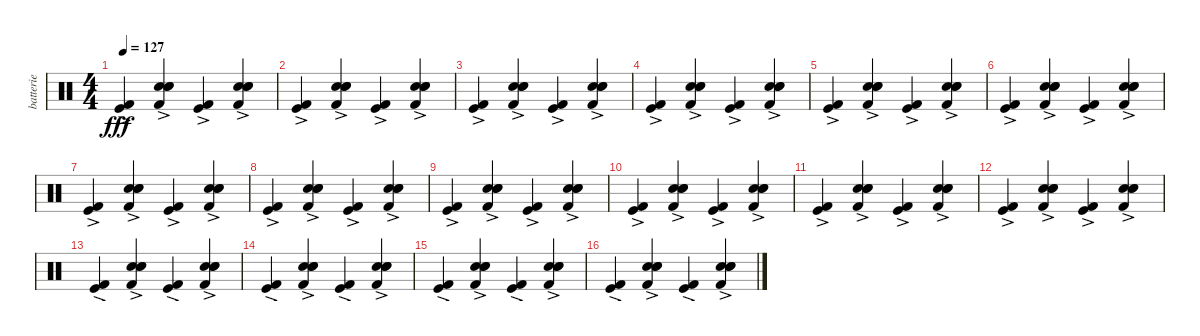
\track ("batterie" "batterie") {instrument percussion}
\staff {score}
\articulation defaults
\ts (4 4)
\tempo 127
\clef neutral
\ks c
("Kick (hit) 2" "Kick (hit)"{ac}).4{dy fff} ("Hand Clap (hit)"{ac} "Kick (hit) 2" "Electric Snare (hit)" "Snare (hit) 2").4 ("Kick (hit) 2" "Kick (hit)"{ac}).4 ("Hand Clap (hit)"{ac} "Kick (hit) 2" "Electric Snare (hit)" "Snare (hit) 2").4 |
("Kick (hit) 2" "Kick (hit)"{ac}).4 ("Hand Clap (hit)"{ac} "Kick (hit) 2" "Electric Snare (hit)" "Snare (hit) 2").4 ("Kick (hit) 2" "Kick (hit)"{ac}).4 ("Hand Clap (hit)"{ac} "Kick (hit) 2" "Electric Snare (hit)" "Snare (hit) 2").4 |
("Kick (hit) 2" "Kick (hit)"{ac}).4 ("Hand Clap (hit)"{ac} "Kick (hit) 2" "Electric Snare (hit)" "Snare (hit) 2").4 ("Kick (hit) 2" "Kick (hit)"{ac}).4 ("Hand Clap (hit)"{ac} "Kick (hit) 2" "Electric Snare (hit)" "Snare (hit) 2").4 |
("Kick (hit) 2" "Kick (hit)"{ac}).4 ("Hand Clap (hit)"{ac} "Kick (hit) 2" "Electric Snare (hit)" "Snare (hit) 2").4 ("Kick (hit) 2" "Kick (hit)"{ac}).4 ("Hand Clap (hit)"{ac} "Kick (hit) 2" "Electric Snare (hit)" "Snare (hit) 2").4 |
("Kick (hit) 2" "Kick (hit)"{ac}).4 ("Hand Clap (hit)"{ac} "Kick (hit) 2" "Electric Snare (hit)" "Snare (hit) 2").4 ("Kick (hit) 2" "Kick (hit)"{ac}).4 ("Hand Clap (hit)"{ac} "Kick (hit) 2" "Electric Snare (hit)" "Snare (hit) 2").4 |
("Kick (hit) 2" "Kick (hit)"{ac}).4 ("Hand Clap (hit)"{ac} "Kick (hit) 2" "Electric Snare (hit)" "Snare (hit) 2").4 ("Kick (hit) 2" "Kick (hit)"{ac}).4 ("Hand Clap (hit)"{ac} "Kick (hit) 2" "Electric Snare (hit)" "Snare (hit) 2").4 |
("Kick (hit) 2" "Kick (hit)"{ac}).4 ("Hand Clap (hit)"{ac} "Kick (hit) 2" "Electric Snare (hit)" "Snare (hit) 2").4 ("Kick (hit) 2" "Kick (hit)"{ac}).4 ("Hand Clap (hit)"{ac} "Kick (hit) 2" "Electric Snare (hit)" "Snare (hit) 2").4 |
("Kick (hit) 2" "Kick (hit)"{ac}).4 ("Hand Clap (hit)"{ac} "Kick (hit) 2" "Electric Snare (hit)" "Snare (hit) 2").4 ("Kick (hit) 2" "Kick (hit)"{ac}).4 ("Hand Clap (hit)"{ac} "Kick (hit) 2" "Electric Snare (hit)" "Snare (hit) 2").4 |
("Kick (hit) 2" "Kick (hit)"{ac}).4 ("Hand Clap (hit)"{ac} "Kick (hit) 2" "Electric Snare (hit)" "Snare (hit) 2").4 ("Kick (hit) 2" "Kick (hit)"{ac}).4 ("Hand Clap (hit)"{ac} "Kick (hit) 2" "Electric Snare (hit)" "Snare (hit) 2").4 |
("Kick (hit) 2" "Kick (hit)"{ac}).4 ("Hand Clap (hit)"{ac} "Kick (hit) 2" "Electric Snare (hit)" "Snare (hit) 2").4 ("Kick (hit) 2" "Kick (hit)"{ac}).4 ("Hand Clap (hit)"{ac} "Kick (hit) 2" "Electric Snare (hit)" "Snare (hit) 2").4 |
("Kick (hit) 2" "Kick (hit)"{ac}).4 ("Hand Clap (hit)"{ac} "Kick (hit) 2" "Electric Snare (hit)" "Snare (hit) 2").4 ("Kick (hit) 2" "Kick (hit)"{ac}).4 ("Hand Clap (hit)"{ac} "Kick (hit) 2" "Electric Snare (hit)" "Snare (hit) 2").4 |
("Kick (hit) 2" "Kick (hit)"{ac}).4 ("Hand Clap (hit)"{ac} "Kick (hit) 2" "Electric Snare (hit)" "Snare (hit) 2").4 ("Kick (hit) 2" "Kick (hit)"{ac}).4 ("Hand Clap (hit)"{ac} "Kick (hit) 2" "Electric Snare (hit)" "Snare (hit) 2").4 |
("Kick (hit) 2" "Kick (hit)"{ac}).4 ("Hand Clap (hit)"{ac} "Kick (hit) 2" "Electric Snare (hit)" "Snare (hit) 2").4 ("Kick (hit) 2" "Kick (hit)"{ac}).4 ("Hand Clap (hit)"{ac} "Kick (hit) 2" "Electric Snare (hit)" "Snare (hit) 2").4 |
("Kick (hit) 2" "Kick (hit)"{ac}).4 ("Hand Clap (hit)"{ac} "Kick (hit) 2" "Electric Snare (hit)" "Snare (hit) 2").4 ("Kick (hit) 2" "Kick (hit)"{ac}).4 ("Hand Clap (hit)"{ac} "Kick (hit) 2" "Electric Snare (hit)" "Snare (hit) 2").4 |
("Kick (hit) 2" "Kick (hit)"{ac}).4 ("Hand Clap (hit)"{ac} "Kick (hit) 2" "Electric Snare (hit)" "Snare (hit) 2").4 ("Kick (hit) 2" "Kick (hit)"{ac}).4 ("Hand Clap (hit)"{ac} "Kick (hit) 2" "Electric Snare (hit)" "Snare (hit) 2").4 |
("Kick (hit) 2" "Kick (hit)"{ac}).4 ("Hand Clap (hit)"{ac} "Kick (hit) 2" "Electric Snare (hit)" "Snare (hit) 2").4 ("Kick (hit) 2" "Kick (hit)"{ac}).4 ("Hand Clap (hit)"{ac} "Kick (hit) 2" "Electric Snare (hit)" "Snare (hit) 2").4
